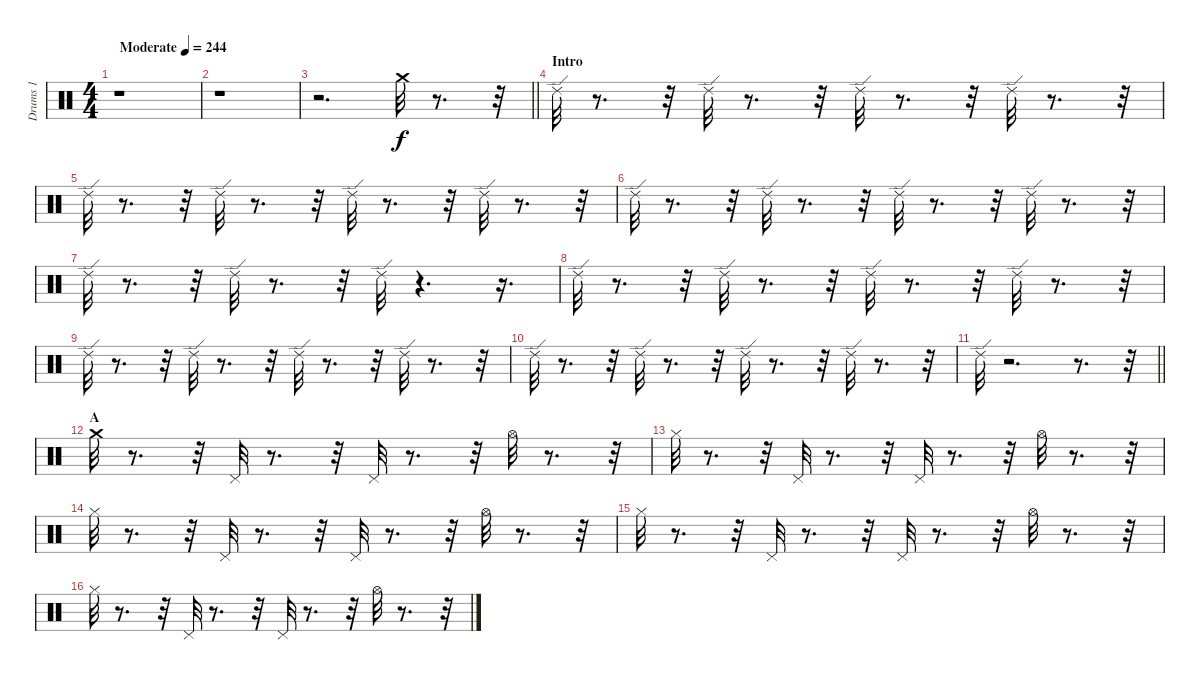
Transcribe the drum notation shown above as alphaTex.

\track ("Drums 1" "Drums 1") {instrument percussion}
\staff {score}
\articulation defaults
\ts (4 4)
\tempo (244 "Moderate")
\clef neutral
\ks c
r.1{dy f} |
r.1 |
\barLineRight lightlight
r.2{d} "Crash medium (hit)".32 r.8{d} r.32 |
\section ("" "Intro")
"Ride (edge) 2".32 r.8{d} r.32 "Ride (edge) 2".32 r.8{d} r.32 "Ride (edge) 2".32 r.8{d} r.32 "Ride (edge) 2".32 r.8{d} r.32 |
"Ride (edge) 2".32 r.8{d} r.32 "Ride (edge) 2".32 r.8{d} r.32 "Ride (edge) 2".32 r.8{d} r.32 "Ride (edge) 2".32 r.8{d} r.32 |
"Ride (edge) 2".32 r.8{d} r.32 "Ride (edge) 2".32 r.8{d} r.32 "Ride (edge) 2".32 r.8{d} r.32 "Ride (edge) 2".32 r.8{d} r.32 |
"Ride (edge) 2".32 r.8{d} r.32 "Ride (edge) 2".32 r.8{d} r.32 "Ride (edge) 2".32 r.4{d} r.16{d} |
"Ride (edge) 2".32 r.8{d} r.32 "Ride (edge) 2".32 r.8{d} r.32 "Ride (edge) 2".32 r.8{d} r.32 "Ride (edge) 2".32 r.8{d} r.32 |
"Ride (edge) 2".32 r.8{d} r.32 "Ride (edge) 2".32 r.8{d} r.32 "Ride (edge) 2".32 r.8{d} r.32 "Ride (edge) 2".32 r.8{d} r.32 |
"Ride (edge) 2".32 r.8{d} r.32 "Ride (edge) 2".32 r.8{d} r.32 "Ride (edge) 2".32 r.8{d} r.32 "Ride (edge) 2".32 r.8{d} r.32 |
\barLineRight lightlight "Ride (edge) 2".32
r.2{d} r.8{d} r.32 |
\section ("" "A")
"Crash medium (hit)".32 r.8{d} r.32 "Pedal Hi-Hat (hit)".32 r.8{d} r.32 "Pedal Hi-Hat (hit)".32 r.8{d} r.32 "Hi-Hat (open)".32 r.8{d} r.32 |
"Hi-Hat (closed)".32 r.8{d} r.32 "Pedal Hi-Hat (hit)".32 r.8{d} r.32 "Pedal Hi-Hat (hit)".32 r.8{d} r.32 "Hi-Hat (open)".32 r.8{d} r.32 |
"Hi-Hat (closed)".32 r.8{d} r.32 "Pedal Hi-Hat (hit)".32 r.8{d} r.32 "Pedal Hi-Hat (hit)".32 r.8{d} r.32 "Hi-Hat (open)".32 r.8{d} r.32 |
"Hi-Hat (closed)".32 r.8{d} r.32 "Pedal Hi-Hat (hit)".32 r.8{d} r.32 "Pedal Hi-Hat (hit)".32 r.8{d} r.32 "Hi-Hat (open)".32 r.8{d} r.32 |
"Hi-Hat (closed)".32 r.8{d} r.32 "Pedal Hi-Hat (hit)".32 r.8{d} r.32 "Pedal Hi-Hat (hit)".32 r.8{d} r.32 "Hi-Hat (open)".32 r.8{d} r.32
